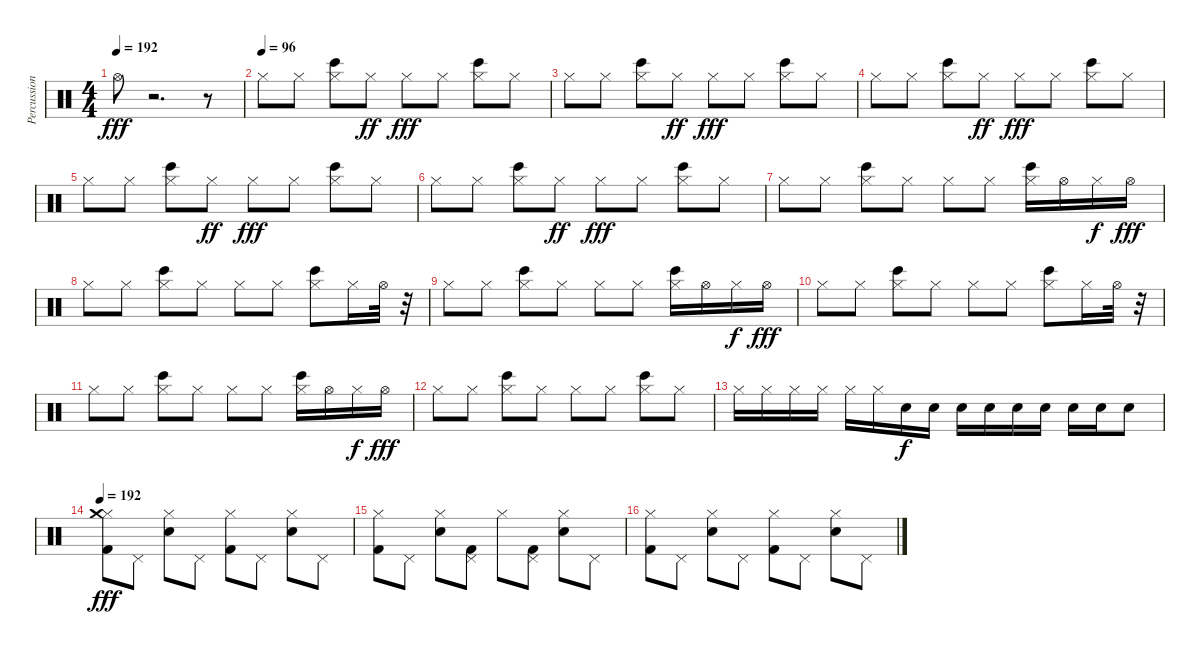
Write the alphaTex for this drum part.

\track ("Percussion" "Percussion") {instrument percussion}
\staff {score}
\articulation defaults
\ts (4 4)
\tempo 192
\clef neutral
\ks c "Hi-Hat (open)".8{dy fff}
r.2{d} r.8 |
\tempo (96)
"Hi-Hat (closed)".8 "Hi-Hat (closed)".8 ("Hi-Hat (closed)" "Bongo High (hit)").8 "Hi-Hat (closed)".8{dy ff} "Hi-Hat (closed)".8{dy fff} "Hi-Hat (closed)".8 ("Hi-Hat (closed)" "Bongo High (hit)").8 "Hi-Hat (closed)".8 |
"Hi-Hat (closed)".8 "Hi-Hat (closed)".8 ("Hi-Hat (closed)" "Bongo High (hit)").8 "Hi-Hat (closed)".8{dy ff} "Hi-Hat (closed)".8{dy fff} "Hi-Hat (closed)".8 ("Hi-Hat (closed)" "Bongo High (hit)").8 "Hi-Hat (closed)".8 |
"Hi-Hat (closed)".8 "Hi-Hat (closed)".8 ("Hi-Hat (closed)" "Bongo High (hit)").8 "Hi-Hat (closed)".8{dy ff} "Hi-Hat (closed)".8{dy fff} "Hi-Hat (closed)".8 ("Hi-Hat (closed)" "Bongo High (hit)").8 "Hi-Hat (closed)".8 |
"Hi-Hat (closed)".8 "Hi-Hat (closed)".8 ("Hi-Hat (closed)" "Bongo High (hit)").8 "Hi-Hat (closed)".8{dy ff} "Hi-Hat (closed)".8{dy fff} "Hi-Hat (closed)".8 ("Hi-Hat (closed)" "Bongo High (hit)").8 "Hi-Hat (closed)".8 |
"Hi-Hat (closed)".8 "Hi-Hat (closed)".8 ("Hi-Hat (closed)" "Bongo High (hit)").8 "Hi-Hat (closed)".8{dy ff} "Hi-Hat (closed)".8{dy fff} "Hi-Hat (closed)".8 ("Hi-Hat (closed)" "Bongo High (hit)").8 "Hi-Hat (closed)".8 |
"Hi-Hat (closed)".8 "Hi-Hat (closed)".8 ("Hi-Hat (closed)" "Bongo High (hit)").8 "Hi-Hat (closed)".8 "Hi-Hat (closed)".8 "Hi-Hat (closed)".8 ("Hi-Hat (closed)" "Bongo High (hit)").16 "Hi-Hat (open)".16 "Hi-Hat (closed)".16{dy f} "Hi-Hat (open)".16{dy fff} |
"Hi-Hat (closed)".8 "Hi-Hat (closed)".8 ("Hi-Hat (closed)" "Bongo High (hit)").8 "Hi-Hat (closed)".8 "Hi-Hat (closed)".8 "Hi-Hat (closed)".8 ("Hi-Hat (closed)" "Bongo High (hit)").8 "Hi-Hat (closed)".16 "Hi-Hat (open)".32 r.32 |
"Hi-Hat (closed)".8 "Hi-Hat (closed)".8 ("Hi-Hat (closed)" "Bongo High (hit)").8 "Hi-Hat (closed)".8 "Hi-Hat (closed)".8 "Hi-Hat (closed)".8 ("Hi-Hat (closed)" "Bongo High (hit)").16 "Hi-Hat (open)".16 "Hi-Hat (closed)".16{dy f} "Hi-Hat (open)".16{dy fff} |
"Hi-Hat (closed)".8 "Hi-Hat (closed)".8 ("Hi-Hat (closed)" "Bongo High (hit)").8 "Hi-Hat (closed)".8 "Hi-Hat (closed)".8 "Hi-Hat (closed)".8 ("Hi-Hat (closed)" "Bongo High (hit)").8 "Hi-Hat (closed)".16 "Hi-Hat (open)".32 r.32 |
"Hi-Hat (closed)".8 "Hi-Hat (closed)".8 ("Hi-Hat (closed)" "Bongo High (hit)").8 "Hi-Hat (closed)".8 "Hi-Hat (closed)".8 "Hi-Hat (closed)".8 ("Hi-Hat (closed)" "Bongo High (hit)").16 "Hi-Hat (open)".16 "Hi-Hat (closed)".16{dy f} "Hi-Hat (open)".16{dy fff} |
"Hi-Hat (closed)".8 "Hi-Hat (closed)".8 ("Hi-Hat (closed)" "Bongo High (hit)").8 "Hi-Hat (closed)".8 "Hi-Hat (closed)".8 "Hi-Hat (closed)".8 ("Hi-Hat (closed)" "Bongo High (hit)").8 "Hi-Hat (closed)".8 |
"Hi-Hat (closed)".16 "Hi-Hat (closed)".16 "Hi-Hat (closed)".16 "Hi-Hat (closed)".16 "Hi-Hat (closed)".16 "Hi-Hat (closed)".16 "Snare (hit) 2".16{dy f} "Snare (hit) 2".16 "Snare (hit) 2".16 "Snare (hit) 2".16 "Snare (hit) 2".16 "Snare (hit) 2".16 "Snare (hit) 2".16 "Snare (hit) 2".16 "Electric Snare (hit)".8 |
\tempo 192
("Hi-Hat (closed)" "Crash medium (hit)" "Kick (hit) 2").8{dy fff} "Pedal Hi-Hat (hit)".8 ("Hi-Hat (closed)" "Snare (hit) 2").8 "Pedal Hi-Hat (hit)".8 ("Hi-Hat (closed)" "Kick (hit) 2").8 "Pedal Hi-Hat (hit)".8 ("Hi-Hat (closed)" "Snare (hit) 2").8 "Pedal Hi-Hat (hit)".8 |
("Hi-Hat (closed)" "Kick (hit) 2").8 "Pedal Hi-Hat (hit)".8 ("Hi-Hat (closed)" "Snare (hit) 2").8 ("Pedal Hi-Hat (hit)" "Kick (hit) 2").8 "Hi-Hat (closed)".8 ("Pedal Hi-Hat (hit)" "Kick (hit) 2").8 ("Hi-Hat (closed)" "Snare (hit) 2").8 "Pedal Hi-Hat (hit)".8 |
("Hi-Hat (closed)" "Kick (hit) 2").8 "Pedal Hi-Hat (hit)".8 ("Hi-Hat (closed)" "Snare (hit) 2").8 "Pedal Hi-Hat (hit)".8 ("Hi-Hat (closed)" "Kick (hit) 2").8 "Pedal Hi-Hat (hit)".8 ("Hi-Hat (closed)" "Snare (hit) 2").8 "Pedal Hi-Hat (hit)".8
